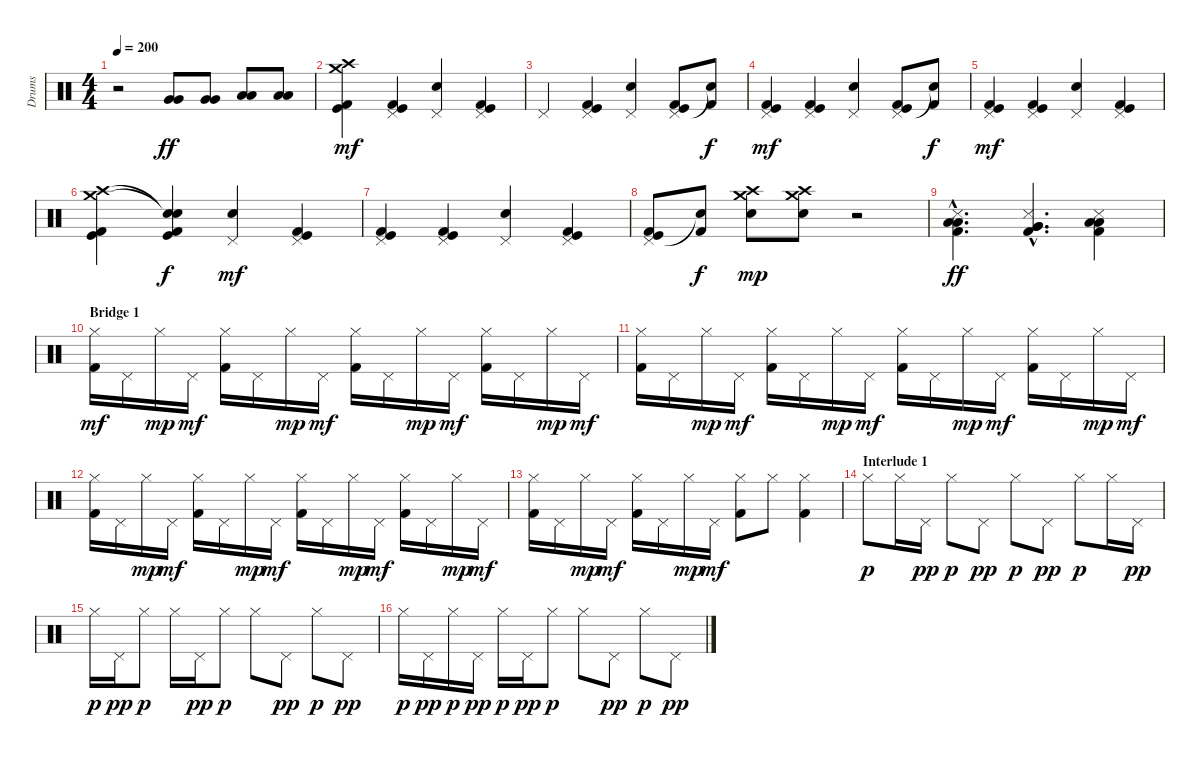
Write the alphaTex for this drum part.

\track ("Drums" "Drums") {instrument percussion}
\staff {score}
\articulation defaults
\ts (4 4)
\tempo 200
\clef neutral
\ks c
r.2{dy mp} ("Very Low Tom (hit)" "Very Low Tom (hit)").8{dy ff} ("Very Low Tom (hit)" "Very Low Tom (hit)").8 ("Low Tom (hit)" "Low Tom (hit)").8 ("Low Tom (hit)" "Low Tom (hit)").8 |
("Crash high (hit)" "Crash medium (hit)" "Kick (hit)" "Kick (hit) 2").4{dy mf} ("Pedal Hi-Hat (hit)" "Kick (hit)" "Kick (hit) 2").4 ("Pedal Hi-Hat (hit)" "Snare (hit) 2").4 ("Pedal Hi-Hat (hit)" "Kick (hit)" "Kick (hit) 2").4 |
"Pedal Hi-Hat (hit)".4 ("Pedal Hi-Hat (hit)" "Kick (hit)" "Kick (hit) 2").4 ("Pedal Hi-Hat (hit)" "Snare (hit) 2").4 ("Pedal Hi-Hat (hit)" "Kick (hit)" "Kick (hit) 2").8 ("Snare (hit)"{t} "Kick (hit) 2").8{dy f} |
("Pedal Hi-Hat (hit)" "Kick (hit)" "Kick (hit) 2").4{dy mf} ("Pedal Hi-Hat (hit)" "Kick (hit)" "Kick (hit) 2").4 ("Pedal Hi-Hat (hit)" "Snare (hit) 2").4 ("Pedal Hi-Hat (hit)" "Kick (hit)" "Kick (hit) 2").8 ("Snare (hit)"{t} "Kick (hit) 2").8{dy f} |
("Pedal Hi-Hat (hit)" "Kick (hit)" "Kick (hit) 2").4{dy mf} ("Pedal Hi-Hat (hit)" "Kick (hit)" "Kick (hit) 2").4 ("Pedal Hi-Hat (hit)" "Snare (hit) 2").4 ("Pedal Hi-Hat (hit)" "Kick (hit)" "Kick (hit) 2").4 |
("Crash high (hit)" "Crash medium (hit)" "Kick (hit)" "Kick (hit) 2").4 ("Snare (hit)"{t} "Snare (hit)"{t} "Kick (hit)" "Kick (hit) 2").4{dy f} ("Pedal Hi-Hat (hit)" "Snare (hit) 2").4{dy mf} ("Pedal Hi-Hat (hit)" "Kick (hit)" "Kick (hit) 2").4 |
("Pedal Hi-Hat (hit)" "Kick (hit)" "Kick (hit) 2").4 ("Pedal Hi-Hat (hit)" "Kick (hit)" "Kick (hit) 2").4 ("Pedal Hi-Hat (hit)" "Snare (hit) 2").4 ("Pedal Hi-Hat (hit)" "Kick (hit)" "Kick (hit) 2").4 |
("Pedal Hi-Hat (hit)" "Kick (hit)" "Kick (hit) 2").8 ("Snare (hit)"{t} "Kick (hit) 2").8{dy f} ("Crash high (hit)" "Crash medium (hit)" "Snare (hit) 2").8{dy mp} ("Crash high (hit)" "Crash medium (hit)" "Snare (hit) 2").8 r.2 |
("Snare (side stick) 3"{hac} "Kick (hit) 2"{hac} "Low Tom (hit)"{hac} "Low Tom (hit)"{hac}).4{d dy ff} ("Snare (side stick) 3"{hac} "Kick (hit) 2"{hac} "Very Low Tom (hit)"{hac} "Very Low Tom (hit)"{hac}).4{d} ("Snare (side stick) 3" "Kick (hit) 2" "Low Tom (hit)" "Low Tom (hit)").4 |
\section ("" "Bridge 1")
("Hi-Hat (closed)" "Kick (hit) 2").16{dy mf} "Pedal Hi-Hat (hit)".16 "Hi-Hat (closed)".16{dy mp} "Pedal Hi-Hat (hit)".16{dy mf} ("Hi-Hat (closed)" "Kick (hit) 2").16 "Pedal Hi-Hat (hit)".16 "Hi-Hat (closed)".16{dy mp} "Pedal Hi-Hat (hit)".16{dy mf} ("Hi-Hat (closed)" "Kick (hit) 2").16 "Pedal Hi-Hat (hit)".16 "Hi-Hat (closed)".16{dy mp} "Pedal Hi-Hat (hit)".16{dy mf} ("Hi-Hat (closed)" "Kick (hit) 2").16 "Pedal Hi-Hat (hit)".16 "Hi-Hat (closed)".16{dy mp} "Pedal Hi-Hat (hit)".16{dy mf} |
("Hi-Hat (closed)" "Kick (hit) 2").16 "Pedal Hi-Hat (hit)".16 "Hi-Hat (closed)".16{dy mp} "Pedal Hi-Hat (hit)".16{dy mf} ("Hi-Hat (closed)" "Kick (hit) 2").16 "Pedal Hi-Hat (hit)".16 "Hi-Hat (closed)".16{dy mp} "Pedal Hi-Hat (hit)".16{dy mf} ("Hi-Hat (closed)" "Kick (hit) 2").16 "Pedal Hi-Hat (hit)".16 "Hi-Hat (closed)".16{dy mp} "Pedal Hi-Hat (hit)".16{dy mf} ("Hi-Hat (closed)" "Kick (hit) 2").16 "Pedal Hi-Hat (hit)".16 "Hi-Hat (closed)".16{dy mp} "Pedal Hi-Hat (hit)".16{dy mf} |
("Hi-Hat (closed)" "Kick (hit) 2").16 "Pedal Hi-Hat (hit)".16 "Hi-Hat (closed)".16{dy mp} "Pedal Hi-Hat (hit)".16{dy mf} ("Hi-Hat (closed)" "Kick (hit) 2").16 "Pedal Hi-Hat (hit)".16 "Hi-Hat (closed)".16{dy mp} "Pedal Hi-Hat (hit)".16{dy mf} ("Hi-Hat (closed)" "Kick (hit) 2").16 "Pedal Hi-Hat (hit)".16 "Hi-Hat (closed)".16{dy mp} "Pedal Hi-Hat (hit)".16{dy mf} ("Hi-Hat (closed)" "Kick (hit) 2").16 "Pedal Hi-Hat (hit)".16 "Hi-Hat (closed)".16{dy mp} "Pedal Hi-Hat (hit)".16{dy mf} |
("Hi-Hat (closed)" "Kick (hit) 2").16 "Pedal Hi-Hat (hit)".16 "Hi-Hat (closed)".16{dy mp} "Pedal Hi-Hat (hit)".16{dy mf} ("Hi-Hat (closed)" "Kick (hit) 2").16 "Pedal Hi-Hat (hit)".16 "Hi-Hat (closed)".16{dy mp} "Pedal Hi-Hat (hit)".16{dy mf} ("Hi-Hat (closed)" "Kick (hit) 2").8 "Hi-Hat (closed)".8 ("Hi-Hat (closed)" "Kick (hit) 2").4 |
\section ("" "Interlude 1")
"Hi-Hat (closed)".8{dy p} "Hi-Hat (closed)".16 "Pedal Hi-Hat (hit)".16{dy pp} "Hi-Hat (closed)".8{dy p} "Pedal Hi-Hat (hit)".8{dy pp} "Hi-Hat (closed)".8{dy p} "Pedal Hi-Hat (hit)".8{dy pp} "Hi-Hat (closed)".8{dy p} "Hi-Hat (closed)".16 "Pedal Hi-Hat (hit)".16{dy pp} |
"Hi-Hat (closed)".16{dy p} "Pedal Hi-Hat (hit)".16{dy pp} "Hi-Hat (closed)".8{dy p} "Hi-Hat (closed)".16 "Pedal Hi-Hat (hit)".16{dy pp} "Hi-Hat (closed)".8{dy p} "Hi-Hat (closed)".8 "Pedal Hi-Hat (hit)".8{dy pp} "Hi-Hat (closed)".8{dy p} "Pedal Hi-Hat (hit)".8{dy pp} |
"Hi-Hat (closed)".16{dy p} "Pedal Hi-Hat (hit)".16{dy pp} "Hi-Hat (closed)".16{dy p} "Pedal Hi-Hat (hit)".16{dy pp} "Hi-Hat (closed)".16{dy p} "Pedal Hi-Hat (hit)".16{dy pp} "Hi-Hat (closed)".8{dy p} "Hi-Hat (closed)".8 "Pedal Hi-Hat (hit)".8{dy pp} "Hi-Hat (closed)".8{dy p} "Pedal Hi-Hat (hit)".8{dy pp}
